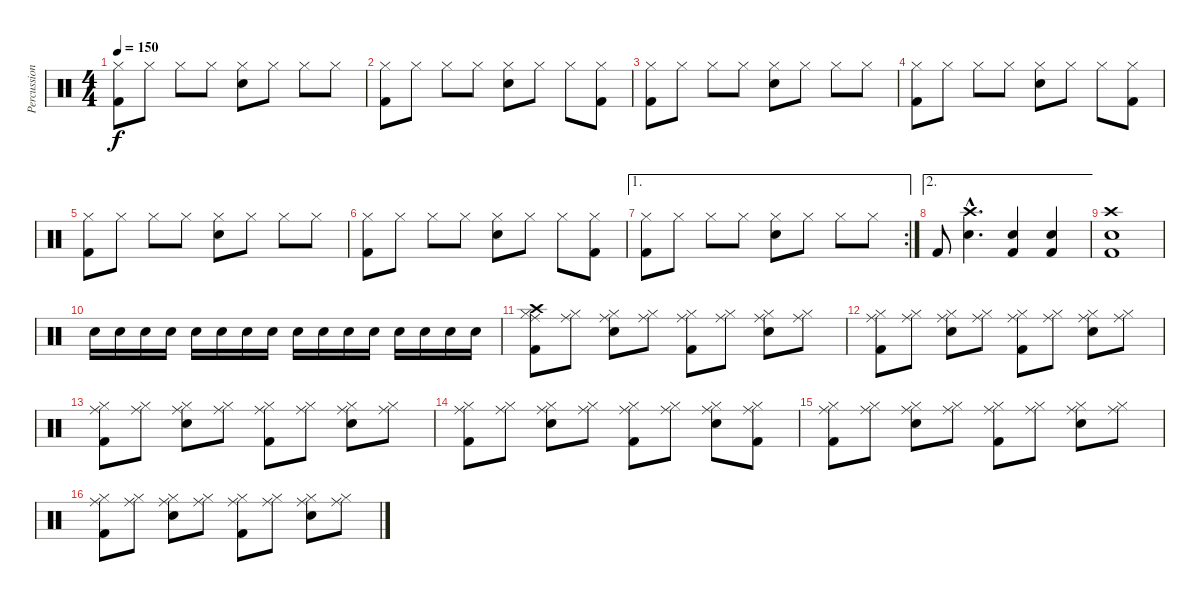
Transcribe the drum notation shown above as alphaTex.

\track ("Percussion" "Percussion") {instrument percussion}
\staff {score}
\articulation defaults
\ts (4 4)
\tempo 150
\clef neutral
\ks c
("Hi-Hat (closed)" "Kick (hit) 2").8{dy f} "Hi-Hat (closed)".8 "Hi-Hat (closed)".8 "Hi-Hat (closed)".8 ("Hi-Hat (closed)" "Electric Snare (hit)").8 "Hi-Hat (closed)".8 "Hi-Hat (closed)".8 "Hi-Hat (closed)".8 |
("Hi-Hat (closed)" "Kick (hit) 2").8 "Hi-Hat (closed)".8 "Hi-Hat (closed)".8 "Hi-Hat (closed)".8 ("Hi-Hat (closed)" "Electric Snare (hit)").8 "Hi-Hat (closed)".8 "Hi-Hat (closed)".8 ("Hi-Hat (closed)" "Kick (hit) 2").8 |
("Hi-Hat (closed)" "Kick (hit) 2").8 "Hi-Hat (closed)".8 "Hi-Hat (closed)".8 "Hi-Hat (closed)".8 ("Hi-Hat (closed)" "Electric Snare (hit)").8 "Hi-Hat (closed)".8 "Hi-Hat (closed)".8 "Hi-Hat (closed)".8 |
("Hi-Hat (closed)" "Kick (hit) 2").8 "Hi-Hat (closed)".8 "Hi-Hat (closed)".8 "Hi-Hat (closed)".8 ("Hi-Hat (closed)" "Electric Snare (hit)").8 "Hi-Hat (closed)".8 "Hi-Hat (closed)".8 ("Hi-Hat (closed)" "Kick (hit) 2").8 |
("Hi-Hat (closed)" "Kick (hit) 2").8 "Hi-Hat (closed)".8 "Hi-Hat (closed)".8 "Hi-Hat (closed)".8 ("Hi-Hat (closed)" "Electric Snare (hit)").8 "Hi-Hat (closed)".8 "Hi-Hat (closed)".8 "Hi-Hat (closed)".8 |
("Hi-Hat (closed)" "Kick (hit) 2").8 "Hi-Hat (closed)".8 "Hi-Hat (closed)".8 "Hi-Hat (closed)".8 ("Hi-Hat (closed)" "Electric Snare (hit)").8 "Hi-Hat (closed)".8 "Hi-Hat (closed)".8 ("Hi-Hat (closed)" "Kick (hit) 2").8 |
\ae 1
\rc 2
("Hi-Hat (closed)" "Kick (hit) 2").8 "Hi-Hat (closed)".8 "Hi-Hat (closed)".8 "Hi-Hat (closed)".8 ("Hi-Hat (closed)" "Electric Snare (hit)").8 "Hi-Hat (closed)".8 "Hi-Hat (closed)".8 "Hi-Hat (closed)".8 |
\ae 2 "Kick (hit) 2".8
("Crash high (hit)"{hac} "Electric Snare (hit)"{hac}).4{d} ("Kick (hit) 2" "Electric Snare (hit)").4 ("Kick (hit) 2" "Electric Snare (hit)").4 |
("Crash high (hit)" "Kick (hit) 2" "Electric Snare (hit)").1 |
"Electric Snare (hit)".16 "Electric Snare (hit)".16 "Electric Snare (hit)".16 "Electric Snare (hit)".16 "Electric Snare (hit)".16 "Electric Snare (hit)".16 "Electric Snare (hit)".16 "Electric Snare (hit)".16 "Electric Snare (hit)".16 "Electric Snare (hit)".16 "Electric Snare (hit)".16 "Electric Snare (hit)".16 "Electric Snare (hit)".16 "Electric Snare (hit)".16 "Electric Snare (hit)".16 "Electric Snare (hit)".16 |
("Hi-Hat (closed)" "Crash high (hit)" "Ride (middle)" "Kick (hit) 2").8 ("Hi-Hat (closed)" "Ride (middle)").8 ("Hi-Hat (closed)" "Ride (middle)" "Electric Snare (hit)").8 ("Hi-Hat (closed)" "Ride (middle)").8 ("Hi-Hat (closed)" "Ride (middle)" "Kick (hit) 2").8 ("Hi-Hat (closed)" "Ride (middle)").8 ("Hi-Hat (closed)" "Ride (middle)" "Electric Snare (hit)").8 ("Hi-Hat (closed)" "Ride (middle)").8 |
("Hi-Hat (closed)" "Ride (middle)" "Kick (hit) 2").8 ("Hi-Hat (closed)" "Ride (middle)").8 ("Hi-Hat (closed)" "Ride (middle)" "Electric Snare (hit)").8 ("Hi-Hat (closed)" "Ride (middle)").8 ("Hi-Hat (closed)" "Ride (middle)" "Kick (hit) 2").8 ("Hi-Hat (closed)" "Ride (middle)").8 ("Hi-Hat (closed)" "Ride (middle)" "Electric Snare (hit)").8 ("Hi-Hat (closed)" "Ride (middle)").8 |
("Hi-Hat (closed)" "Ride (middle)" "Kick (hit) 2").8 ("Hi-Hat (closed)" "Ride (middle)").8 ("Hi-Hat (closed)" "Ride (middle)" "Electric Snare (hit)").8 ("Hi-Hat (closed)" "Ride (middle)").8 ("Hi-Hat (closed)" "Ride (middle)" "Kick (hit) 2").8 ("Hi-Hat (closed)" "Ride (middle)").8 ("Hi-Hat (closed)" "Ride (middle)" "Electric Snare (hit)").8 ("Hi-Hat (closed)" "Ride (middle)").8 |
("Hi-Hat (closed)" "Ride (middle)" "Kick (hit) 2").8 ("Hi-Hat (closed)" "Ride (middle)").8 ("Hi-Hat (closed)" "Ride (middle)" "Electric Snare (hit)").8 ("Hi-Hat (closed)" "Ride (middle)").8 ("Hi-Hat (closed)" "Ride (middle)" "Kick (hit) 2").8 ("Hi-Hat (closed)" "Ride (middle)").8 ("Hi-Hat (closed)" "Ride (middle)" "Electric Snare (hit)").8 ("Hi-Hat (closed)" "Ride (middle)" "Kick (hit) 2").8 |
("Hi-Hat (closed)" "Ride (middle)" "Kick (hit) 2").8 ("Hi-Hat (closed)" "Ride (middle)").8 ("Hi-Hat (closed)" "Ride (middle)" "Electric Snare (hit)").8 ("Hi-Hat (closed)" "Ride (middle)").8 ("Hi-Hat (closed)" "Ride (middle)" "Kick (hit) 2").8 ("Hi-Hat (closed)" "Ride (middle)").8 ("Hi-Hat (closed)" "Ride (middle)" "Electric Snare (hit)").8 ("Hi-Hat (closed)" "Ride (middle)").8 |
("Hi-Hat (closed)" "Ride (middle)" "Kick (hit) 2").8 ("Hi-Hat (closed)" "Ride (middle)").8 ("Hi-Hat (closed)" "Ride (middle)" "Electric Snare (hit)").8 ("Hi-Hat (closed)" "Ride (middle)").8 ("Hi-Hat (closed)" "Ride (middle)" "Kick (hit) 2").8 ("Hi-Hat (closed)" "Ride (middle)").8 ("Hi-Hat (closed)" "Ride (middle)" "Electric Snare (hit)").8 ("Hi-Hat (closed)" "Ride (middle)").8
